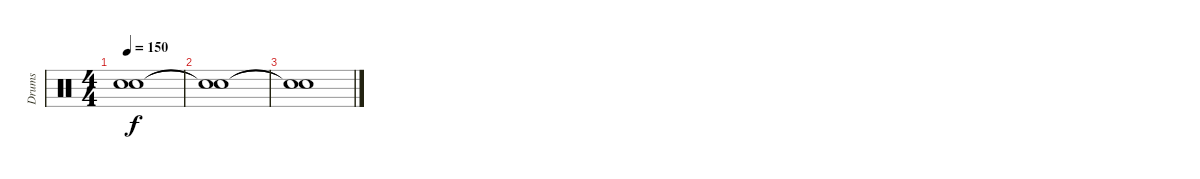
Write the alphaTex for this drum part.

\track ("Drums" "Drums") {instrument percussion}
\staff {score}
\articulation defaults
\ts (4 4)
\tempo 150
\clef neutral
\ks c
("Snare (hit)"{t} "Snare (hit)"{t}).1{dy f} |
("Snare (hit)"{t} "Snare (hit)"{t}).1 |
("Snare (hit)"{t} "Snare (hit)"{t}).1
